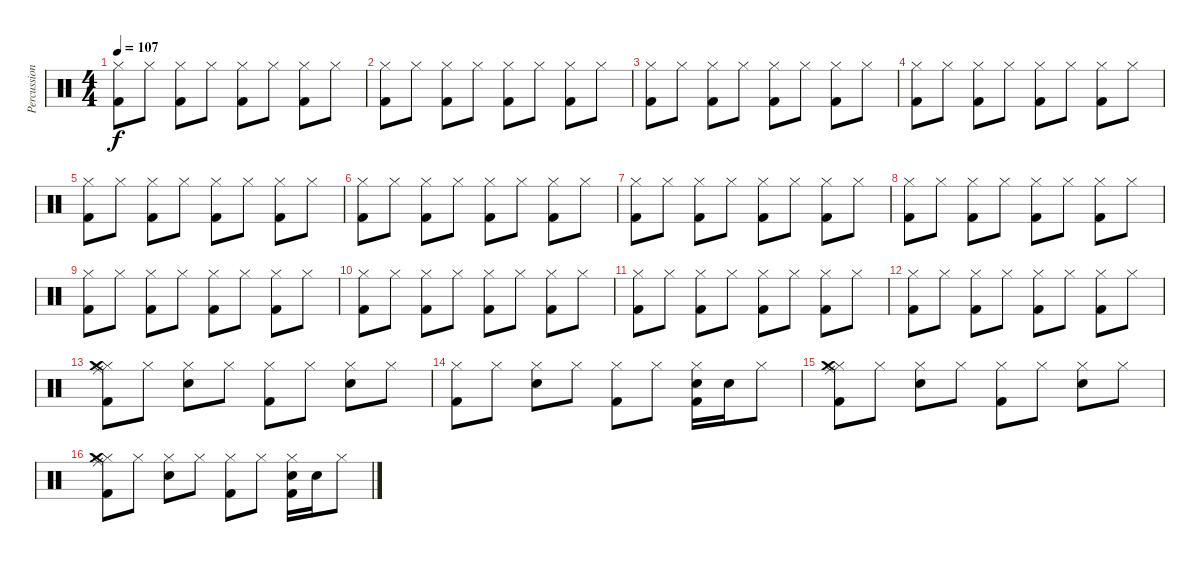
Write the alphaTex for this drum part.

\track ("Percussion" "Percussion") {instrument percussion}
\staff {score}
\articulation defaults
\ts (4 4)
\tempo 107
\clef neutral
\ks c
("Hi-Hat (closed)" "Kick (hit) 2").8{dy f} "Hi-Hat (closed)".8 ("Hi-Hat (closed)" "Kick (hit) 2").8 "Hi-Hat (closed)".8 ("Hi-Hat (closed)" "Kick (hit) 2").8 "Hi-Hat (closed)".8 ("Hi-Hat (closed)" "Kick (hit) 2").8 "Hi-Hat (closed)".8 |
("Hi-Hat (closed)" "Kick (hit) 2").8 "Hi-Hat (closed)".8 ("Hi-Hat (closed)" "Kick (hit) 2").8 "Hi-Hat (closed)".8 ("Hi-Hat (closed)" "Kick (hit) 2").8 "Hi-Hat (closed)".8 ("Hi-Hat (closed)" "Kick (hit) 2").8 "Hi-Hat (closed)".8 |
("Hi-Hat (closed)" "Kick (hit) 2").8 "Hi-Hat (closed)".8 ("Hi-Hat (closed)" "Kick (hit) 2").8 "Hi-Hat (closed)".8 ("Hi-Hat (closed)" "Kick (hit) 2").8 "Hi-Hat (closed)".8 ("Hi-Hat (closed)" "Kick (hit) 2").8 "Hi-Hat (closed)".8 |
("Hi-Hat (closed)" "Kick (hit) 2").8 "Hi-Hat (closed)".8 ("Hi-Hat (closed)" "Kick (hit) 2").8 "Hi-Hat (closed)".8 ("Hi-Hat (closed)" "Kick (hit) 2").8 "Hi-Hat (closed)".8 ("Hi-Hat (closed)" "Kick (hit) 2").8 "Hi-Hat (closed)".8 |
("Hi-Hat (closed)" "Kick (hit) 2").8 "Hi-Hat (closed)".8 ("Hi-Hat (closed)" "Kick (hit) 2").8 "Hi-Hat (closed)".8 ("Hi-Hat (closed)" "Kick (hit) 2").8 "Hi-Hat (closed)".8 ("Hi-Hat (closed)" "Kick (hit) 2").8 "Hi-Hat (closed)".8 |
("Hi-Hat (closed)" "Kick (hit) 2").8 "Hi-Hat (closed)".8 ("Hi-Hat (closed)" "Kick (hit) 2").8 "Hi-Hat (closed)".8 ("Hi-Hat (closed)" "Kick (hit) 2").8 "Hi-Hat (closed)".8 ("Hi-Hat (closed)" "Kick (hit) 2").8 "Hi-Hat (closed)".8 |
("Hi-Hat (closed)" "Kick (hit) 2").8 "Hi-Hat (closed)".8 ("Hi-Hat (closed)" "Kick (hit) 2").8 "Hi-Hat (closed)".8 ("Hi-Hat (closed)" "Kick (hit) 2").8 "Hi-Hat (closed)".8 ("Hi-Hat (closed)" "Kick (hit) 2").8 "Hi-Hat (closed)".8 |
("Hi-Hat (closed)" "Kick (hit) 2").8 "Hi-Hat (closed)".8 ("Hi-Hat (closed)" "Kick (hit) 2").8 "Hi-Hat (closed)".8 ("Hi-Hat (closed)" "Kick (hit) 2").8 "Hi-Hat (closed)".8 ("Hi-Hat (closed)" "Kick (hit) 2").8 "Hi-Hat (closed)".8 |
("Hi-Hat (closed)" "Kick (hit) 2").8 "Hi-Hat (closed)".8 ("Hi-Hat (closed)" "Kick (hit) 2").8 "Hi-Hat (closed)".8 ("Hi-Hat (closed)" "Kick (hit) 2").8 "Hi-Hat (closed)".8 ("Hi-Hat (closed)" "Kick (hit) 2").8 "Hi-Hat (closed)".8 |
("Hi-Hat (closed)" "Kick (hit) 2").8 "Hi-Hat (closed)".8 ("Hi-Hat (closed)" "Kick (hit) 2").8 "Hi-Hat (closed)".8 ("Hi-Hat (closed)" "Kick (hit) 2").8 "Hi-Hat (closed)".8 ("Hi-Hat (closed)" "Kick (hit) 2").8 "Hi-Hat (closed)".8 |
("Hi-Hat (closed)" "Kick (hit) 2").8 "Hi-Hat (closed)".8 ("Hi-Hat (closed)" "Kick (hit) 2").8 "Hi-Hat (closed)".8 ("Hi-Hat (closed)" "Kick (hit) 2").8 "Hi-Hat (closed)".8 ("Hi-Hat (closed)" "Kick (hit) 2").8 "Hi-Hat (closed)".8 |
("Hi-Hat (closed)" "Kick (hit) 2").8 "Hi-Hat (closed)".8 ("Hi-Hat (closed)" "Kick (hit) 2").8 "Hi-Hat (closed)".8 ("Hi-Hat (closed)" "Kick (hit) 2").8 "Hi-Hat (closed)".8 ("Hi-Hat (closed)" "Kick (hit) 2").8 "Hi-Hat (closed)".8 |
("Hi-Hat (closed)" "Ride (middle)" "Crash medium (hit)" "Kick (hit) 2").8 "Hi-Hat (closed)".8 ("Hi-Hat (closed)" "Snare (hit) 2").8 "Hi-Hat (closed)".8 ("Hi-Hat (closed)" "Kick (hit) 2").8 "Hi-Hat (closed)".8 ("Hi-Hat (closed)" "Snare (hit) 2").8 "Hi-Hat (closed)".8 |
("Hi-Hat (closed)" "Kick (hit) 2").8 "Hi-Hat (closed)".8 ("Hi-Hat (closed)" "Snare (hit) 2").8 "Hi-Hat (closed)".8 ("Hi-Hat (closed)" "Kick (hit) 2").8 "Hi-Hat (closed)".8 ("Hi-Hat (closed)" "Kick (hit) 2" "Snare (hit) 2").16 "Snare (hit) 2".16 "Hi-Hat (closed)".8 |
("Hi-Hat (closed)" "Ride (middle)" "Crash medium (hit)" "Kick (hit) 2").8 "Hi-Hat (closed)".8 ("Hi-Hat (closed)" "Snare (hit) 2").8 "Hi-Hat (closed)".8 ("Hi-Hat (closed)" "Kick (hit) 2").8 "Hi-Hat (closed)".8 ("Hi-Hat (closed)" "Snare (hit) 2").8 "Hi-Hat (closed)".8 |
("Hi-Hat (closed)" "Ride (middle)" "Crash medium (hit)" "Kick (hit) 2").8 "Hi-Hat (closed)".8 ("Hi-Hat (closed)" "Snare (hit) 2").8 "Hi-Hat (closed)".8 ("Hi-Hat (closed)" "Kick (hit) 2").8 "Hi-Hat (closed)".8 ("Hi-Hat (closed)" "Kick (hit) 2" "Snare (hit) 2").16 "Snare (hit) 2".16 "Hi-Hat (closed)".8
